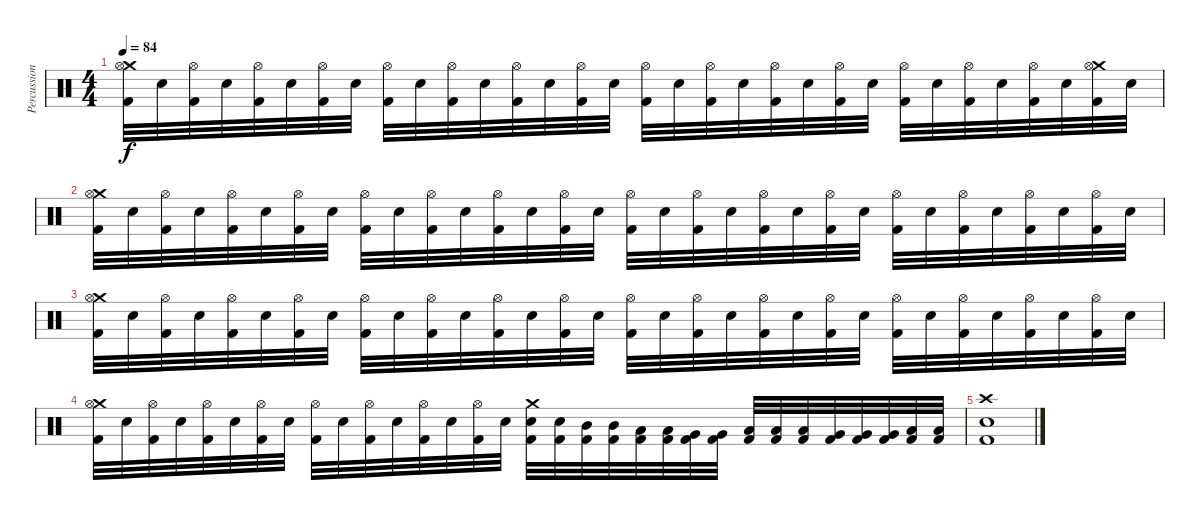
\track ("Percussion" "Percussion") {instrument percussion}
\staff {score}
\articulation defaults
\ts (4 4)
\tempo 84
\clef neutral
\ks c
("Crash medium (hit)" "Hi-Hat (open)" "Kick (hit) 2").32{dy f} "Snare (hit) 2".32 ("Hi-Hat (open)" "Kick (hit) 2").32 "Snare (hit) 2".32 ("Hi-Hat (open)" "Kick (hit) 2").32 "Snare (hit) 2".32 ("Hi-Hat (open)" "Kick (hit) 2").32 "Snare (hit) 2".32 ("Hi-Hat (open)" "Kick (hit) 2").32 "Snare (hit) 2".32 ("Hi-Hat (open)" "Kick (hit) 2").32 "Snare (hit) 2".32 ("Hi-Hat (open)" "Kick (hit) 2").32 "Snare (hit) 2".32 ("Hi-Hat (open)" "Kick (hit) 2").32 "Snare (hit) 2".32 ("Hi-Hat (open)" "Kick (hit) 2").32 "Snare (hit) 2".32 ("Hi-Hat (open)" "Kick (hit) 2").32 "Snare (hit) 2".32 ("Hi-Hat (open)" "Kick (hit) 2").32 "Snare (hit) 2".32 ("Hi-Hat (open)" "Kick (hit) 2").32 "Snare (hit) 2".32 ("Hi-Hat (open)" "Kick (hit) 2").32 "Snare (hit) 2".32 ("Hi-Hat (open)" "Kick (hit) 2").32 "Snare (hit) 2".32 ("Hi-Hat (open)" "Kick (hit) 2").32 "Snare (hit) 2".32 ("Crash medium (hit)" "Hi-Hat (open)" "Kick (hit) 2").32 "Snare (hit) 2".32 |
("Crash medium (hit)" "Hi-Hat (open)" "Kick (hit) 2").32 "Snare (hit) 2".32 ("Hi-Hat (open)" "Kick (hit) 2").32 "Snare (hit) 2".32 ("Hi-Hat (open)" "Kick (hit) 2").32 "Snare (hit) 2".32 ("Hi-Hat (open)" "Kick (hit) 2").32 "Snare (hit) 2".32 ("Hi-Hat (open)" "Kick (hit) 2").32 "Snare (hit) 2".32 ("Hi-Hat (open)" "Kick (hit) 2").32 "Snare (hit) 2".32 ("Hi-Hat (open)" "Kick (hit) 2").32 "Snare (hit) 2".32 ("Hi-Hat (open)" "Kick (hit) 2").32 "Snare (hit) 2".32 ("Hi-Hat (open)" "Kick (hit) 2").32 "Snare (hit) 2".32 ("Hi-Hat (open)" "Kick (hit) 2").32 "Snare (hit) 2".32 ("Hi-Hat (open)" "Kick (hit) 2").32 "Snare (hit) 2".32 ("Hi-Hat (open)" "Kick (hit) 2").32 "Snare (hit) 2".32 ("Hi-Hat (open)" "Kick (hit) 2").32 "Snare (hit) 2".32 ("Hi-Hat (open)" "Kick (hit) 2").32 "Snare (hit) 2".32 ("Hi-Hat (open)" "Kick (hit) 2").32 "Snare (hit) 2".32 ("Hi-Hat (open)" "Kick (hit) 2").32 "Snare (hit) 2".32 |
("Crash medium (hit)" "Hi-Hat (open)" "Kick (hit) 2").32 "Snare (hit) 2".32 ("Hi-Hat (open)" "Kick (hit) 2").32 "Snare (hit) 2".32 ("Hi-Hat (open)" "Kick (hit) 2").32 "Snare (hit) 2".32 ("Hi-Hat (open)" "Kick (hit) 2").32 "Snare (hit) 2".32 ("Hi-Hat (open)" "Kick (hit) 2").32 "Snare (hit) 2".32 ("Hi-Hat (open)" "Kick (hit) 2").32 "Snare (hit) 2".32 ("Hi-Hat (open)" "Kick (hit) 2").32 "Snare (hit) 2".32 ("Hi-Hat (open)" "Kick (hit) 2").32 "Snare (hit) 2".32 ("Hi-Hat (open)" "Kick (hit) 2").32 "Snare (hit) 2".32 ("Hi-Hat (open)" "Kick (hit) 2").32 "Snare (hit) 2".32 ("Hi-Hat (open)" "Kick (hit) 2").32 "Snare (hit) 2".32 ("Hi-Hat (open)" "Kick (hit) 2").32 "Snare (hit) 2".32 ("Hi-Hat (open)" "Kick (hit) 2").32 "Snare (hit) 2".32 ("Hi-Hat (open)" "Kick (hit) 2").32 "Snare (hit) 2".32 ("Hi-Hat (open)" "Kick (hit) 2").32 "Snare (hit) 2".32 ("Hi-Hat (open)" "Kick (hit) 2").32 "Snare (hit) 2".32 |
("Crash medium (hit)" "Hi-Hat (open)" "Kick (hit) 2").32 "Snare (hit) 2".32 ("Hi-Hat (open)" "Kick (hit) 2").32 "Snare (hit) 2".32 ("Hi-Hat (open)" "Kick (hit) 2").32 "Snare (hit) 2".32 ("Hi-Hat (open)" "Kick (hit) 2").32 "Snare (hit) 2".32 ("Hi-Hat (open)" "Kick (hit) 2").32 "Snare (hit) 2".32 ("Hi-Hat (open)" "Kick (hit) 2").32 "Snare (hit) 2".32 ("Hi-Hat (open)" "Kick (hit) 2").32 "Snare (hit) 2".32 ("Hi-Hat (open)" "Kick (hit) 2").32 "Snare (hit) 2".32 ("Crash medium (hit)" "Snare (hit) 2" "Kick (hit) 2").32 ("Snare (hit) 2" "Kick (hit) 2").32 ("Mid Tom (hit)" "Kick (hit) 2").32 ("Mid Tom (hit)" "Kick (hit) 2").32 ("Low Tom (hit)" "Kick (hit) 2").32 ("Low Tom (hit)" "Kick (hit) 2").32 ("Very Low Tom (hit)" "Kick (hit) 2").32 ("Very Low Tom (hit)" "Kick (hit) 2").32 ("Low Tom (hit)" "Kick (hit) 2").32 ("Low Tom (hit)" "Kick (hit) 2").32 ("Low Tom (hit)" "Kick (hit) 2").32 ("Very Low Tom (hit)" "Kick (hit) 2").32 ("Very Low Tom (hit)" "Kick (hit) 2").32 ("Very Low Tom (hit)" "Kick (hit) 2").32 ("Low Floor Tom (hit)" "Kick (hit) 2").32 ("Low Floor Tom (hit)" "Kick (hit) 2").32 |
("Crash high (hit)" "Snare (hit) 2" "Kick (hit) 2").1
